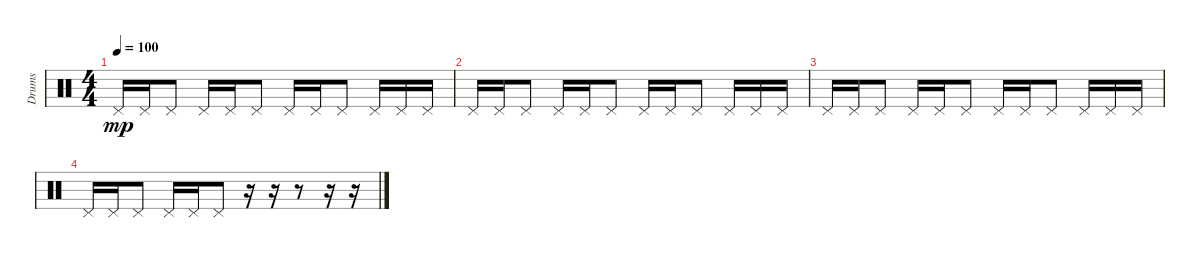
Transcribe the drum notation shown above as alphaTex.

\track ("Drums" "Drums") {instrument percussion}
\staff {score}
\articulation defaults
\ts (4 4)
\tempo 100
\clef neutral
\ks c "Pedal Hi-Hat (hit)".16{dy mp} "Pedal Hi-Hat (hit)".16 "Pedal Hi-Hat (hit)".8 "Pedal Hi-Hat (hit)".16 "Pedal Hi-Hat (hit)".16 "Pedal Hi-Hat (hit)".8 "Pedal Hi-Hat (hit)".16 "Pedal Hi-Hat (hit)".16 "Pedal Hi-Hat (hit)".8 "Pedal Hi-Hat (hit)".16 "Pedal Hi-Hat (hit)".16 "Pedal Hi-Hat (hit)".16
|
"Pedal Hi-Hat (hit)".16 "Pedal Hi-Hat (hit)".16 "Pedal Hi-Hat (hit)".8 "Pedal Hi-Hat (hit)".16 "Pedal Hi-Hat (hit)".16 "Pedal Hi-Hat (hit)".8 "Pedal Hi-Hat (hit)".16 "Pedal Hi-Hat (hit)".16 "Pedal Hi-Hat (hit)".8 "Pedal Hi-Hat (hit)".16 "Pedal Hi-Hat (hit)".16 "Pedal Hi-Hat (hit)".16 |
"Pedal Hi-Hat (hit)".16 "Pedal Hi-Hat (hit)".16 "Pedal Hi-Hat (hit)".8 "Pedal Hi-Hat (hit)".16 "Pedal Hi-Hat (hit)".16 "Pedal Hi-Hat (hit)".8 "Pedal Hi-Hat (hit)".16 "Pedal Hi-Hat (hit)".16 "Pedal Hi-Hat (hit)".8 "Pedal Hi-Hat (hit)".16 "Pedal Hi-Hat (hit)".16 "Pedal Hi-Hat (hit)".16 |
"Pedal Hi-Hat (hit)".16 "Pedal Hi-Hat (hit)".16 "Pedal Hi-Hat (hit)".8 "Pedal Hi-Hat (hit)".16 "Pedal Hi-Hat (hit)".16 "Pedal Hi-Hat (hit)".8 r.16 r.16 r.8 r.16 r.16
